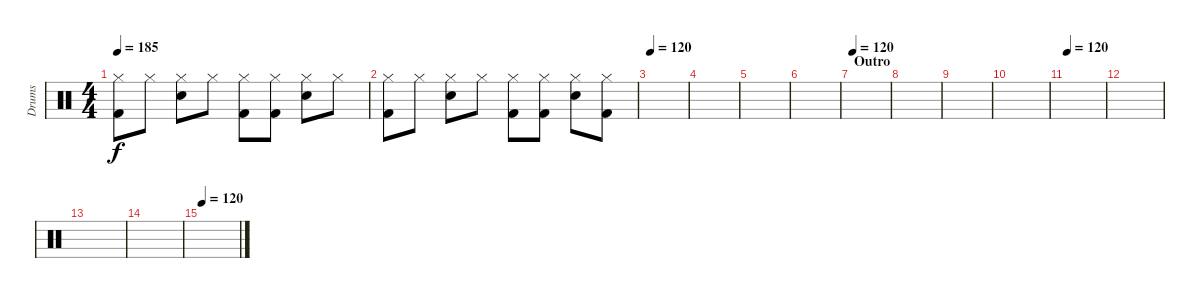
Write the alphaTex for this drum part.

\track ("Drums" "Drums") {instrument percussion}
\staff {score}
\articulation defaults
\ts (4 4)
\tempo 185
\clef neutral
\ks c
("Kick (hit) 2" "Hi-Hat (closed)").8{dy f} "Hi-Hat (closed)".8 ("Electric Snare (hit)" "Hi-Hat (closed)").8 "Hi-Hat (closed)".8 ("Kick (hit) 2" "Hi-Hat (closed)").8 ("Kick (hit) 2" "Hi-Hat (closed)").8 ("Electric Snare (hit)" "Hi-Hat (closed)").8 "Hi-Hat (closed)".8 |
("Kick (hit) 2" "Hi-Hat (closed)").8 "Hi-Hat (closed)".8 ("Electric Snare (hit)" "Hi-Hat (closed)").8 "Hi-Hat (closed)".8 ("Kick (hit) 2" "Hi-Hat (closed)").8 ("Kick (hit) 2" "Hi-Hat (closed)").8 ("Electric Snare (hit)" "Hi-Hat (closed)").8 ("Kick (hit) 2" "Hi-Hat (closed)").8 |
\tempo 120
|
|
|
|
\section ("" "Outro")
\tempo 120
|
|
|
|
\tempo 120
|
|
|
|
\tempo 120
